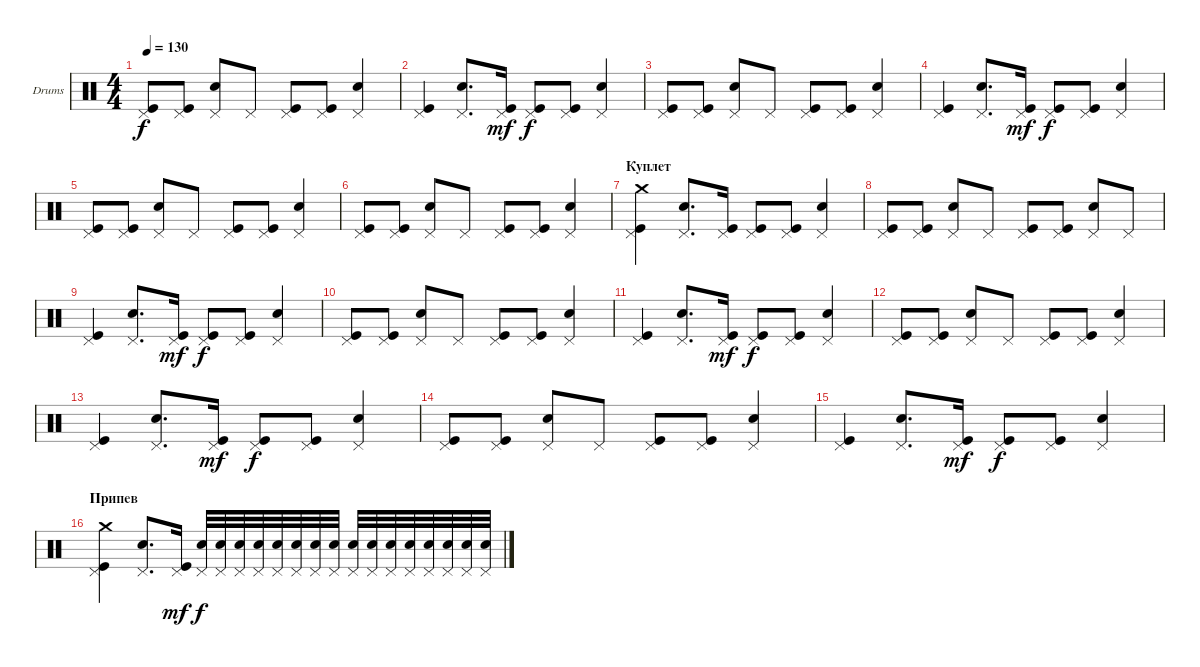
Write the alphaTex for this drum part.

\defaultSystemsLayout 4
\bracketExtendMode groupsimilarinstruments
\firstSystemTrackNameOrientation horizontal
\otherSystemsTrackNameOrientation horizontal
\track ("Е. Кулаков" "Drums") {instrument percussion}
\staff {score}
\articulation defaults
\ts (4 4)
\tempo 130
\clef neutral
\ks c
("Kick (hit)" "Pedal Hi-Hat (hit)").8{dy f} ("Kick (hit)" "Pedal Hi-Hat (hit)").8 ("Snare (hit) 2" "Pedal Hi-Hat (hit)").8 "Pedal Hi-Hat (hit)".8 ("Kick (hit)" "Pedal Hi-Hat (hit)").8 ("Kick (hit)" "Pedal Hi-Hat (hit)").8 ("Snare (hit) 2" "Pedal Hi-Hat (hit)").4 |
("Kick (hit)" "Pedal Hi-Hat (hit)").4 ("Snare (hit) 2" "Pedal Hi-Hat (hit)").8{d} ("Kick (hit)" "Pedal Hi-Hat (hit)").16{dy mf} ("Kick (hit)" "Pedal Hi-Hat (hit)").8{dy f} ("Kick (hit)" "Pedal Hi-Hat (hit)").8 ("Snare (hit) 2" "Pedal Hi-Hat (hit)").4 |
("Kick (hit)" "Pedal Hi-Hat (hit)").8 ("Kick (hit)" "Pedal Hi-Hat (hit)").8 ("Snare (hit) 2" "Pedal Hi-Hat (hit)").8 "Pedal Hi-Hat (hit)".8 ("Kick (hit)" "Pedal Hi-Hat (hit)").8 ("Kick (hit)" "Pedal Hi-Hat (hit)").8 ("Snare (hit) 2" "Pedal Hi-Hat (hit)").4 |
("Kick (hit)" "Pedal Hi-Hat (hit)").4 ("Snare (hit) 2" "Pedal Hi-Hat (hit)").8{d} ("Kick (hit)" "Pedal Hi-Hat (hit)").16{dy mf} ("Kick (hit)" "Pedal Hi-Hat (hit)").8{dy f} ("Kick (hit)" "Pedal Hi-Hat (hit)").8 ("Snare (hit) 2" "Pedal Hi-Hat (hit)").4 |
("Kick (hit)" "Pedal Hi-Hat (hit)").8 ("Kick (hit)" "Pedal Hi-Hat (hit)").8 ("Snare (hit) 2" "Pedal Hi-Hat (hit)").8 "Pedal Hi-Hat (hit)".8 ("Kick (hit)" "Pedal Hi-Hat (hit)").8 ("Kick (hit)" "Pedal Hi-Hat (hit)").8 ("Snare (hit) 2" "Pedal Hi-Hat (hit)").4 |
("Kick (hit)" "Pedal Hi-Hat (hit)").8 ("Kick (hit)" "Pedal Hi-Hat (hit)").8 ("Snare (hit) 2" "Pedal Hi-Hat (hit)").8 "Pedal Hi-Hat (hit)".8 ("Kick (hit)" "Pedal Hi-Hat (hit)").8 ("Kick (hit)" "Pedal Hi-Hat (hit)").8 ("Snare (hit) 2" "Pedal Hi-Hat (hit)").4 |
\section ("" "Куплет")
("Kick (hit)" "Pedal Hi-Hat (hit)" "Crash medium (hit)").4 ("Snare (hit) 2" "Pedal Hi-Hat (hit)").8{d} ("Kick (hit)" "Pedal Hi-Hat (hit)").16 ("Kick (hit)" "Pedal Hi-Hat (hit)").8 ("Kick (hit)" "Pedal Hi-Hat (hit)").8 ("Snare (hit) 2" "Pedal Hi-Hat (hit)").4 |
("Kick (hit)" "Pedal Hi-Hat (hit)").8 ("Kick (hit)" "Pedal Hi-Hat (hit)").8 ("Snare (hit) 2" "Pedal Hi-Hat (hit)").8 "Pedal Hi-Hat (hit)".8 ("Kick (hit)" "Pedal Hi-Hat (hit)").8 ("Kick (hit)" "Pedal Hi-Hat (hit)").8 ("Snare (hit) 2" "Pedal Hi-Hat (hit)").8 "Pedal Hi-Hat (hit)".8 |
("Kick (hit)" "Pedal Hi-Hat (hit)").4 ("Snare (hit) 2" "Pedal Hi-Hat (hit)").8{d} ("Kick (hit)" "Pedal Hi-Hat (hit)").16{dy mf} ("Kick (hit)" "Pedal Hi-Hat (hit)").8{dy f} ("Kick (hit)" "Pedal Hi-Hat (hit)").8 ("Snare (hit) 2" "Pedal Hi-Hat (hit)").4 |
("Kick (hit)" "Pedal Hi-Hat (hit)").8 ("Kick (hit)" "Pedal Hi-Hat (hit)").8 ("Snare (hit) 2" "Pedal Hi-Hat (hit)").8 "Pedal Hi-Hat (hit)".8 ("Kick (hit)" "Pedal Hi-Hat (hit)").8 ("Kick (hit)" "Pedal Hi-Hat (hit)").8 ("Snare (hit) 2" "Pedal Hi-Hat (hit)").4 |
("Kick (hit)" "Pedal Hi-Hat (hit)").4 ("Snare (hit) 2" "Pedal Hi-Hat (hit)").8{d} ("Kick (hit)" "Pedal Hi-Hat (hit)").16{dy mf} ("Kick (hit)" "Pedal Hi-Hat (hit)").8{dy f} ("Kick (hit)" "Pedal Hi-Hat (hit)").8 ("Snare (hit) 2" "Pedal Hi-Hat (hit)").4 |
("Kick (hit)" "Pedal Hi-Hat (hit)").8 ("Kick (hit)" "Pedal Hi-Hat (hit)").8 ("Snare (hit) 2" "Pedal Hi-Hat (hit)").8 "Pedal Hi-Hat (hit)".8 ("Kick (hit)" "Pedal Hi-Hat (hit)").8 ("Kick (hit)" "Pedal Hi-Hat (hit)").8 ("Snare (hit) 2" "Pedal Hi-Hat (hit)").4 |
("Kick (hit)" "Pedal Hi-Hat (hit)").4 ("Snare (hit) 2" "Pedal Hi-Hat (hit)").8{d} ("Kick (hit)" "Pedal Hi-Hat (hit)").16{dy mf} ("Kick (hit)" "Pedal Hi-Hat (hit)").8{dy f} ("Kick (hit)" "Pedal Hi-Hat (hit)").8 ("Snare (hit) 2" "Pedal Hi-Hat (hit)").4 |
("Kick (hit)" "Pedal Hi-Hat (hit)").8 ("Kick (hit)" "Pedal Hi-Hat (hit)").8 ("Snare (hit) 2" "Pedal Hi-Hat (hit)").8 "Pedal Hi-Hat (hit)".8 ("Kick (hit)" "Pedal Hi-Hat (hit)").8 ("Kick (hit)" "Pedal Hi-Hat (hit)").8 ("Snare (hit) 2" "Pedal Hi-Hat (hit)").4 |
("Kick (hit)" "Pedal Hi-Hat (hit)").4 ("Snare (hit) 2" "Pedal Hi-Hat (hit)").8{d} ("Kick (hit)" "Pedal Hi-Hat (hit)").16{dy mf} ("Kick (hit)" "Pedal Hi-Hat (hit)").8{dy f} ("Kick (hit)" "Pedal Hi-Hat (hit)").8 ("Snare (hit) 2" "Pedal Hi-Hat (hit)").4 |
\section ("" "Припев")
("Kick (hit)" "Pedal Hi-Hat (hit)" "Crash medium (hit)").4 ("Snare (hit) 2" "Pedal Hi-Hat (hit)").8{d} ("Kick (hit)" "Pedal Hi-Hat (hit)").16{dy mf} ("Snare (hit) 2" "Pedal Hi-Hat (hit)").32{dy f} ("Snare (hit) 2" "Pedal Hi-Hat (hit)").32 ("Snare (hit) 2" "Pedal Hi-Hat (hit)").32 ("Snare (hit) 2" "Pedal Hi-Hat (hit)").32 ("Snare (hit) 2" "Pedal Hi-Hat (hit)").32 ("Snare (hit) 2" "Pedal Hi-Hat (hit)").32 ("Snare (hit) 2" "Pedal Hi-Hat (hit)").32 ("Snare (hit) 2" "Pedal Hi-Hat (hit)").32 ("Snare (hit) 2" "Pedal Hi-Hat (hit)").32 ("Snare (hit) 2" "Pedal Hi-Hat (hit)").32 ("Snare (hit) 2" "Pedal Hi-Hat (hit)").32 ("Snare (hit) 2" "Pedal Hi-Hat (hit)").32 ("Snare (hit) 2" "Pedal Hi-Hat (hit)").32 ("Snare (hit) 2" "Pedal Hi-Hat (hit)").32 ("Snare (hit) 2" "Pedal Hi-Hat (hit)").32 ("Snare (hit) 2" "Pedal Hi-Hat (hit)").32
